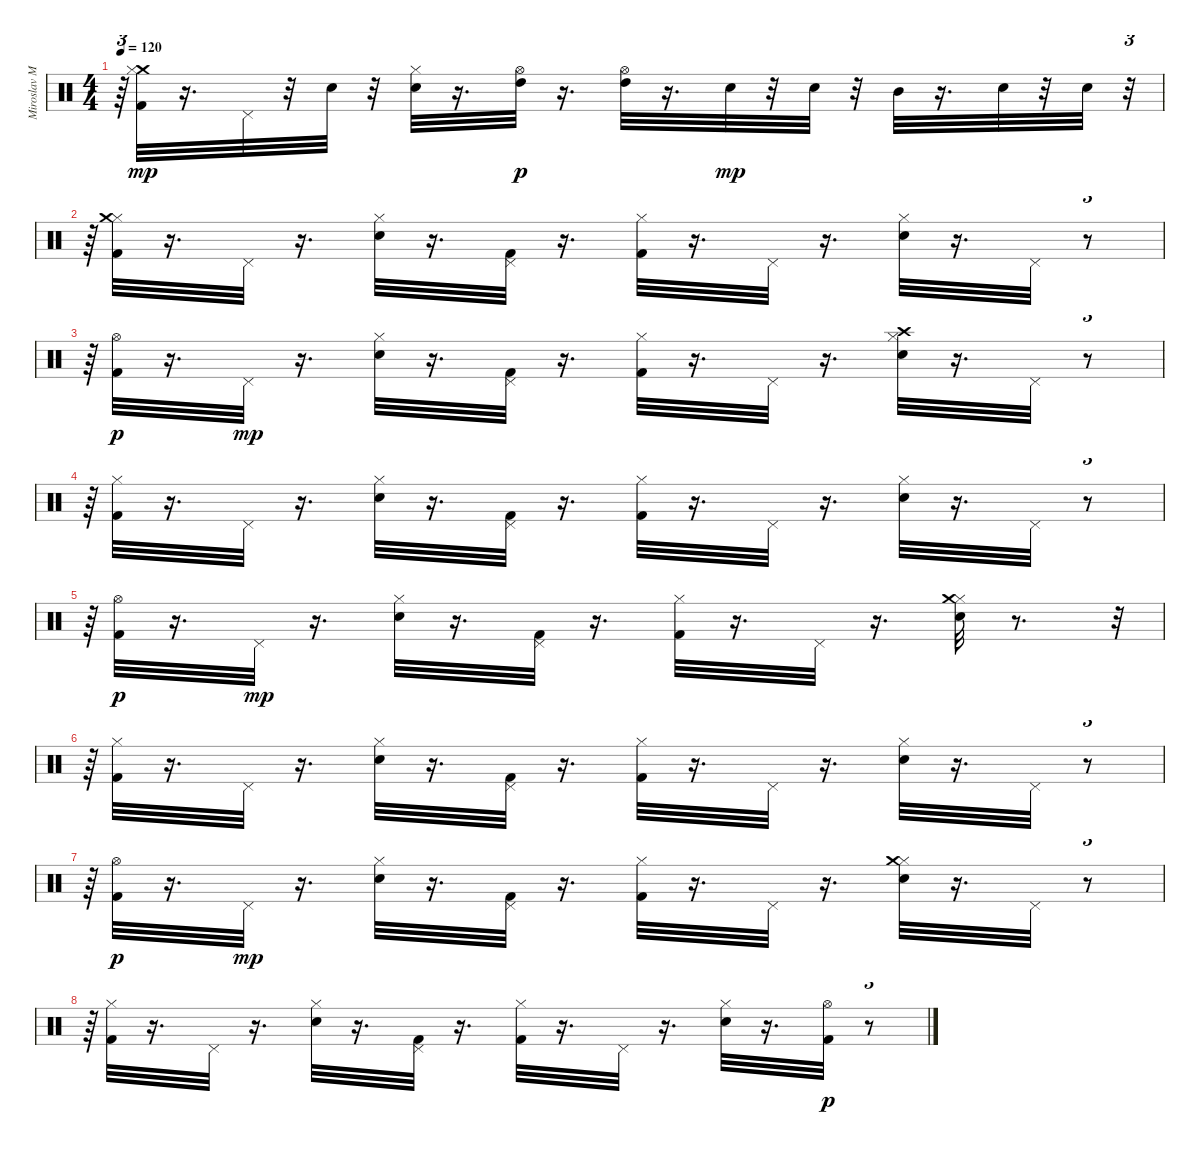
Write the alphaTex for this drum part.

\track ("Miroslav Milatovic-Vicko-bubnjevi" "Miroslav M") {instrument percussion}
\staff {score}
\articulation defaults
\ts (4 4)
\tempo 120
\clef neutral
\ks c
r.64{tu (3 2) dy p} ("Crash medium (hit)" "Hi-Hat (closed)" "Kick (hit) 2").32{dy mp} r.16{d} "Pedal Hi-Hat (hit)".32 r.32 "Electric Snare (hit)".32 r.32 ("Hi-Hat (closed)" "Electric Snare (hit)").32 r.16{d} ("High Tom (hit)" "Hi-Hat (open)").32{dy p} r.16{d} ("High Tom (hit)" "Hi-Hat (open)").32 r.16{d} "Electric Snare (hit)".32{dy mp} r.32 "Electric Snare (hit)".32 r.32 "Mid Tom (hit)".32 r.16{d} "Electric Snare (hit)".32 r.32 "Electric Snare (hit)".32 r.32{tu (3 2)} |
r.64{tu (3 2)} ("Hi-Hat (closed)" "Kick (hit) 2" "Crash medium (hit)").32 r.16{d} "Pedal Hi-Hat (hit)".32 r.16{d} ("Hi-Hat (closed)" "Electric Snare (hit)").32 r.16{d} ("Pedal Hi-Hat (hit)" "Kick (hit) 2").32 r.16{d} ("Hi-Hat (closed)" "Kick (hit) 2").32 r.16{d} "Pedal Hi-Hat (hit)".32 r.16{d} ("Hi-Hat (closed)" "Electric Snare (hit)").32 r.16{d} "Pedal Hi-Hat (hit)".32 r.8{tu (3 2)} |
r.64{tu (3 2)} ("Kick (hit) 2" "Hi-Hat (open)").32{dy p} r.16{d} "Pedal Hi-Hat (hit)".32{dy mp} r.16{d} ("Electric Snare (hit)" "Hi-Hat (closed)").32 r.16{d} ("Kick (hit) 2" "Pedal Hi-Hat (hit)").32 r.16{d} ("Kick (hit) 2" "Hi-Hat (closed)").32 r.16{d} "Pedal Hi-Hat (hit)".32 r.16{d} ("Electric Snare (hit)" "Hi-Hat (closed)" "Crash high (hit)").32 r.16{d} "Pedal Hi-Hat (hit)".32 r.8{tu (3 2)} |
r.64{tu (3 2)} ("Kick (hit) 2" "Hi-Hat (closed)").32 r.16{d} "Pedal Hi-Hat (hit)".32 r.16{d} ("Electric Snare (hit)" "Hi-Hat (closed)").32 r.16{d} ("Kick (hit) 2" "Pedal Hi-Hat (hit)").32 r.16{d} ("Kick (hit) 2" "Hi-Hat (closed)").32 r.16{d} "Pedal Hi-Hat (hit)".32 r.16{d} ("Electric Snare (hit)" "Hi-Hat (closed)").32 r.16{d} "Pedal Hi-Hat (hit)".32 r.8{tu (3 2)} |
r.64{tu (3 2)} ("Kick (hit) 2" "Hi-Hat (open)").32{dy p} r.16{d} "Pedal Hi-Hat (hit)".32{dy mp} r.16{d} ("Hi-Hat (closed)" "Electric Snare (hit)").32 r.16{d} ("Pedal Hi-Hat (hit)" "Kick (hit) 2").32 r.16{d} ("Hi-Hat (closed)" "Kick (hit) 2").32 r.16{d} "Pedal Hi-Hat (hit)".32 r.16{d} ("Hi-Hat (closed)" "Electric Snare (hit)" "Crash medium (hit)").32 r.8{d} r.32{tu (3 2)} |
r.64{tu (3 2)} ("Kick (hit) 2" "Hi-Hat (closed)").32 r.16{d} "Pedal Hi-Hat (hit)".32 r.16{d} ("Electric Snare (hit)" "Hi-Hat (closed)").32 r.16{d} ("Kick (hit) 2" "Pedal Hi-Hat (hit)").32 r.16{d} ("Kick (hit) 2" "Hi-Hat (closed)").32 r.16{d} "Pedal Hi-Hat (hit)".32 r.16{d} ("Electric Snare (hit)" "Hi-Hat (closed)").32 r.16{d} "Pedal Hi-Hat (hit)".32 r.8{tu (3 2)} |
r.64{tu (3 2)} ("Kick (hit) 2" "Hi-Hat (open)").32{dy p} r.16{d} "Pedal Hi-Hat (hit)".32{dy mp} r.16{d} ("Hi-Hat (closed)" "Electric Snare (hit)").32 r.16{d} ("Pedal Hi-Hat (hit)" "Kick (hit) 2").32 r.16{d} ("Hi-Hat (closed)" "Kick (hit) 2").32 r.16{d} "Pedal Hi-Hat (hit)".32 r.16{d} ("Hi-Hat (closed)" "Electric Snare (hit)" "Crash medium (hit)").32 r.16{d} "Pedal Hi-Hat (hit)".32 r.8{tu (3 2)} |
r.64{tu (3 2)} ("Hi-Hat (closed)" "Kick (hit) 2").32 r.16{d} "Pedal Hi-Hat (hit)".32 r.16{d} ("Hi-Hat (closed)" "Electric Snare (hit)").32 r.16{d} ("Pedal Hi-Hat (hit)" "Kick (hit) 2").32 r.16{d} ("Hi-Hat (closed)" "Kick (hit) 2").32 r.16{d} "Pedal Hi-Hat (hit)".32 r.16{d} ("Hi-Hat (closed)" "Electric Snare (hit)").32 r.16{d} ("Kick (hit) 2" "Hi-Hat (open)").32{dy p} r.8{tu (3 2)}
